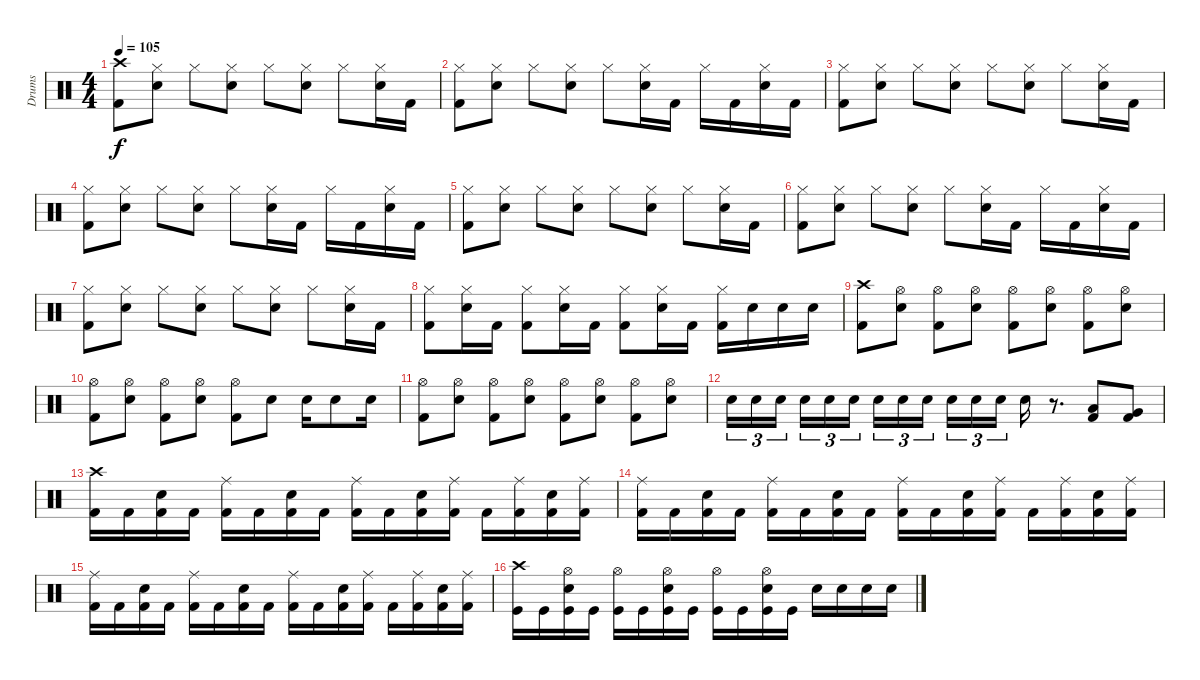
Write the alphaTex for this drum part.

\track ("Drums" "Drums") {instrument percussion}
\staff {score}
\articulation defaults
\ts (4 4)
\tempo 105
\clef neutral
\ks c
("Crash high (hit)" "Kick (hit) 2").8{dy f} ("Hi-Hat (closed)" "Electric Snare (hit)").8 "Hi-Hat (closed)".8 ("Hi-Hat (closed)" "Electric Snare (hit)").8 "Hi-Hat (closed)".8 ("Hi-Hat (closed)" "Electric Snare (hit)").8 "Hi-Hat (closed)".8 ("Hi-Hat (closed)" "Electric Snare (hit)").16 "Kick (hit) 2".16 |
("Hi-Hat (closed)" "Kick (hit) 2").8 ("Hi-Hat (closed)" "Electric Snare (hit)").8 "Hi-Hat (closed)".8 ("Hi-Hat (closed)" "Electric Snare (hit)").8 "Hi-Hat (closed)".8 ("Hi-Hat (closed)" "Electric Snare (hit)").16 "Kick (hit) 2".16 "Hi-Hat (closed)".16 "Kick (hit) 2".16 ("Hi-Hat (closed)" "Electric Snare (hit)").16 "Kick (hit) 2".16 |
("Hi-Hat (closed)" "Kick (hit) 2").8 ("Hi-Hat (closed)" "Electric Snare (hit)").8 "Hi-Hat (closed)".8 ("Hi-Hat (closed)" "Electric Snare (hit)").8 "Hi-Hat (closed)".8 ("Hi-Hat (closed)" "Electric Snare (hit)").8 "Hi-Hat (closed)".8 ("Hi-Hat (closed)" "Electric Snare (hit)").16 "Kick (hit) 2".16 |
("Hi-Hat (closed)" "Kick (hit) 2").8 ("Hi-Hat (closed)" "Electric Snare (hit)").8 "Hi-Hat (closed)".8 ("Hi-Hat (closed)" "Electric Snare (hit)").8 "Hi-Hat (closed)".8 ("Hi-Hat (closed)" "Electric Snare (hit)").16 "Kick (hit) 2".16 "Hi-Hat (closed)".16 "Kick (hit) 2".16 ("Hi-Hat (closed)" "Electric Snare (hit)").16 "Kick (hit) 2".16 |
("Hi-Hat (closed)" "Kick (hit) 2").8 ("Hi-Hat (closed)" "Electric Snare (hit)").8 "Hi-Hat (closed)".8 ("Hi-Hat (closed)" "Electric Snare (hit)").8 "Hi-Hat (closed)".8 ("Hi-Hat (closed)" "Electric Snare (hit)").8 "Hi-Hat (closed)".8 ("Hi-Hat (closed)" "Electric Snare (hit)").16 "Kick (hit) 2".16 |
("Hi-Hat (closed)" "Kick (hit) 2").8 ("Hi-Hat (closed)" "Electric Snare (hit)").8 "Hi-Hat (closed)".8 ("Hi-Hat (closed)" "Electric Snare (hit)").8 "Hi-Hat (closed)".8 ("Hi-Hat (closed)" "Electric Snare (hit)").16 "Kick (hit) 2".16 "Hi-Hat (closed)".16 "Kick (hit) 2".16 ("Hi-Hat (closed)" "Electric Snare (hit)").16 "Kick (hit) 2".16 |
("Hi-Hat (closed)" "Kick (hit) 2").8 ("Hi-Hat (closed)" "Electric Snare (hit)").8 "Hi-Hat (closed)".8 ("Hi-Hat (closed)" "Electric Snare (hit)").8 "Hi-Hat (closed)".8 ("Hi-Hat (closed)" "Electric Snare (hit)").8 "Hi-Hat (closed)".8 ("Hi-Hat (closed)" "Electric Snare (hit)").16 "Kick (hit) 2".16 |
("Hi-Hat (closed)" "Kick (hit) 2").8 ("Hi-Hat (closed)" "Electric Snare (hit)").16 "Kick (hit) 2".16 ("Hi-Hat (closed)" "Kick (hit) 2").8 ("Hi-Hat (closed)" "Electric Snare (hit)").16 "Kick (hit) 2".16 ("Hi-Hat (closed)" "Kick (hit) 2").8 ("Hi-Hat (closed)" "Electric Snare (hit)").16 "Kick (hit) 2".16 ("Hi-Hat (closed)" "Kick (hit) 2").16 "Electric Snare (hit)".16 "Electric Snare (hit)".16 "Electric Snare (hit)".16 |
("Crash high (hit)" "Kick (hit) 2").8 ("Hi-Hat (open)" "Electric Snare (hit)").8 ("Hi-Hat (open)" "Kick (hit) 2").8 ("Hi-Hat (open)" "Electric Snare (hit)").8 ("Hi-Hat (open)" "Kick (hit) 2").8 ("Hi-Hat (open)" "Electric Snare (hit)").8 ("Hi-Hat (open)" "Kick (hit) 2").8 ("Hi-Hat (open)" "Electric Snare (hit)").8 |
("Hi-Hat (open)" "Kick (hit) 2").8 ("Hi-Hat (open)" "Electric Snare (hit)").8 ("Hi-Hat (open)" "Kick (hit) 2").8 ("Hi-Hat (open)" "Electric Snare (hit)").8 ("Hi-Hat (open)" "Kick (hit) 2").8 "Electric Snare (hit)".8 "Electric Snare (hit)".16 "Electric Snare (hit)".8 "Electric Snare (hit)".16 |
("Hi-Hat (open)" "Kick (hit) 2").8 ("Hi-Hat (open)" "Electric Snare (hit)").8 ("Hi-Hat (open)" "Kick (hit) 2").8 ("Hi-Hat (open)" "Electric Snare (hit)").8 ("Hi-Hat (open)" "Kick (hit) 2").8 ("Hi-Hat (open)" "Electric Snare (hit)").8 ("Hi-Hat (open)" "Kick (hit) 2").8 ("Hi-Hat (open)" "Electric Snare (hit)").8 |
"Electric Snare (hit)".16{tu (3 2)} "Electric Snare (hit)".16{tu (3 2)} "Electric Snare (hit)".16{tu (3 2)} "Electric Snare (hit)".16{tu (3 2)} "Electric Snare (hit)".16{tu (3 2)} "Electric Snare (hit)".16{tu (3 2)} "Electric Snare (hit)".16{tu (3 2)} "Electric Snare (hit)".16{tu (3 2)} "Electric Snare (hit)".16{tu (3 2)} "Electric Snare (hit)".16{tu (3 2)} "Electric Snare (hit)".16{tu (3 2)} "Electric Snare (hit)".16{tu (3 2)} "Electric Snare (hit)".16 r.8{d} ("Low Tom (hit)" "Kick (hit) 2").8 ("Very Low Tom (hit)" "Kick (hit) 2").8 |
("Crash high (hit)" "Kick (hit) 2").16 "Kick (hit) 2".16 ("Electric Snare (hit)" "Kick (hit) 2").16 "Kick (hit) 2".16 ("Ride (middle)" "Kick (hit) 2").16 "Kick (hit) 2".16 ("Electric Snare (hit)" "Kick (hit) 2").16 "Kick (hit) 2".16 ("Ride (middle)" "Kick (hit) 2").16 "Kick (hit) 2".16 ("Electric Snare (hit)" "Kick (hit) 2").16 ("Ride (middle)" "Kick (hit) 2").16 "Kick (hit) 2".16 ("Ride (middle)" "Kick (hit) 2").16 ("Electric Snare (hit)" "Kick (hit) 2").16 ("Ride (middle)" "Kick (hit) 2").16 |
("Ride (middle)" "Kick (hit) 2").16 "Kick (hit) 2".16 ("Electric Snare (hit)" "Kick (hit) 2").16 "Kick (hit) 2".16 ("Ride (middle)" "Kick (hit) 2").16 "Kick (hit) 2".16 ("Electric Snare (hit)" "Kick (hit) 2").16 "Kick (hit) 2".16 ("Ride (middle)" "Kick (hit) 2").16 "Kick (hit) 2".16 ("Electric Snare (hit)" "Kick (hit) 2").16 ("Ride (middle)" "Kick (hit) 2").16 "Kick (hit) 2".16 ("Ride (middle)" "Kick (hit) 2").16 ("Electric Snare (hit)" "Kick (hit) 2").16 ("Ride (middle)" "Kick (hit) 2").16 |
("Ride (middle)" "Kick (hit) 2").16 "Kick (hit) 2".16 ("Electric Snare (hit)" "Kick (hit) 2").16 "Kick (hit) 2".16 ("Ride (middle)" "Kick (hit) 2").16 "Kick (hit) 2".16 ("Electric Snare (hit)" "Kick (hit) 2").16 "Kick (hit) 2".16 ("Ride (middle)" "Kick (hit) 2").16 "Kick (hit) 2".16 ("Electric Snare (hit)" "Kick (hit) 2").16 ("Ride (middle)" "Kick (hit) 2").16 "Kick (hit) 2".16 ("Ride (middle)" "Kick (hit) 2").16 ("Electric Snare (hit)" "Kick (hit) 2").16 ("Ride (middle)" "Kick (hit) 2").16 |
("Crash high (hit)" "Kick (hit)").16 "Kick (hit)".16 ("Hi-Hat (open)" "Electric Snare (hit)" "Kick (hit)").16 "Kick (hit)".16 ("Hi-Hat (open)" "Kick (hit)").16 "Kick (hit)".16 ("Hi-Hat (open)" "Electric Snare (hit)" "Kick (hit)").16 "Kick (hit)".16 ("Hi-Hat (open)" "Kick (hit)").16 "Kick (hit)".16 ("Hi-Hat (open)" "Electric Snare (hit)" "Kick (hit)").16 "Kick (hit)".16 "Electric Snare (hit)".16 "Electric Snare (hit)".16 "Electric Snare (hit)".16 "Electric Snare (hit)".16
